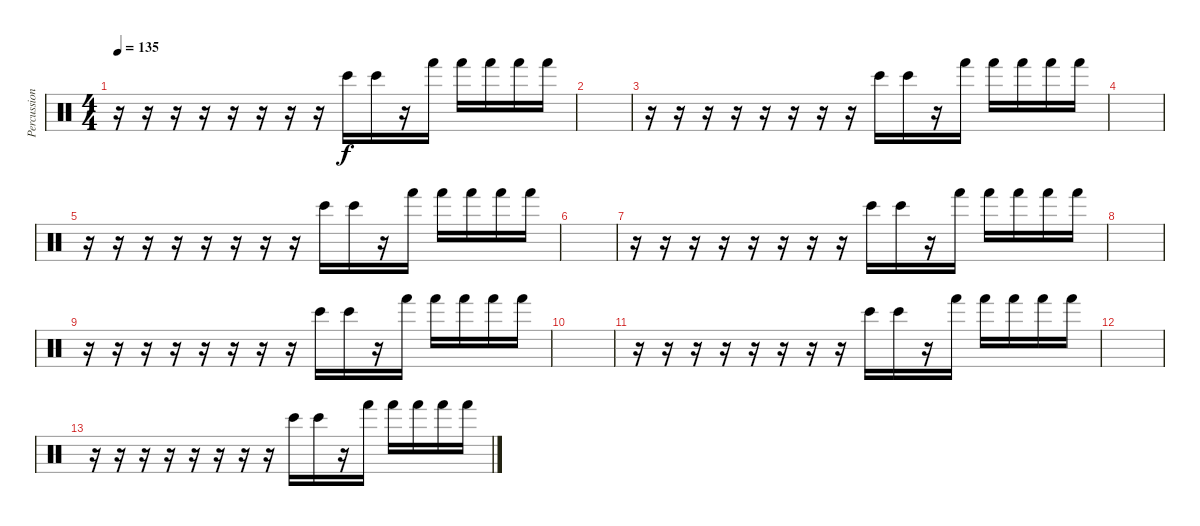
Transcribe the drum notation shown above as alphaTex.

\track ("Percussion" "Percussion") {instrument percussion}
\staff {score}
\articulation defaults
\ts (4 4)
\tempo 135
\clef neutral
\ks c
r.16{dy f} r.16 r.16 r.16 r.16 r.16 r.16 r.16 "Bongo High (hit)".16 "Bongo High (hit)".16 r.16 "Hand (hit)".16 "Hand (hit)".16 "Hand (hit)".16 "Hand (hit)".16 "Hand (hit)".16 |
|
r.16 r.16 r.16 r.16 r.16 r.16 r.16 r.16 "Bongo High (hit)".16 "Bongo High (hit)".16 r.16 "Hand (hit)".16 "Hand (hit)".16 "Hand (hit)".16 "Hand (hit)".16 "Hand (hit)".16 |
|
r.16 r.16 r.16 r.16 r.16 r.16 r.16 r.16 "Bongo High (hit)".16 "Bongo High (hit)".16 r.16 "Hand (hit)".16 "Hand (hit)".16 "Hand (hit)".16 "Hand (hit)".16 "Hand (hit)".16 |
|
r.16 r.16 r.16 r.16 r.16 r.16 r.16 r.16 "Bongo High (hit)".16 "Bongo High (hit)".16 r.16 "Hand (hit)".16 "Hand (hit)".16 "Hand (hit)".16 "Hand (hit)".16 "Hand (hit)".16 |
|
r.16 r.16 r.16 r.16 r.16 r.16 r.16 r.16 "Bongo High (hit)".16 "Bongo High (hit)".16 r.16 "Hand (hit)".16 "Hand (hit)".16 "Hand (hit)".16 "Hand (hit)".16 "Hand (hit)".16 |
|
r.16 r.16 r.16 r.16 r.16 r.16 r.16 r.16 "Bongo High (hit)".16 "Bongo High (hit)".16 r.16 "Hand (hit)".16 "Hand (hit)".16 "Hand (hit)".16 "Hand (hit)".16 "Hand (hit)".16 |
|
r.16 r.16 r.16 r.16 r.16 r.16 r.16 r.16 "Bongo High (hit)".16 "Bongo High (hit)".16 r.16 "Hand (hit)".16 "Hand (hit)".16 "Hand (hit)".16 "Hand (hit)".16 "Hand (hit)".16
